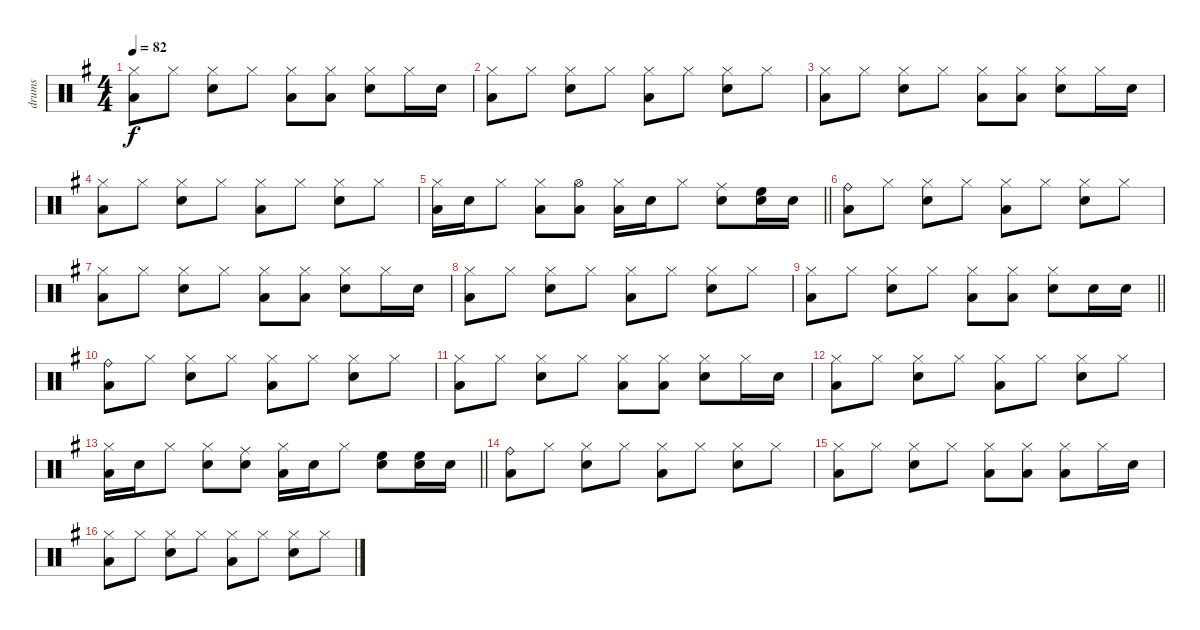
\track ("drums" "drums") {instrument percussion}
\staff {score}
\articulation defaults
\ts (4 4)
\tempo 82
\clef neutral
\ks g
("Hi-Hat (closed)" "Low Floor Tom (hit)").8{dy f} "Hi-Hat (closed)".8 ("Hi-Hat (closed)" "Electric Snare (hit)").8 "Hi-Hat (closed)".8 ("Hi-Hat (closed)" "Low Floor Tom (hit)").8 ("Hi-Hat (closed)" "Low Floor Tom (hit)").8 ("Hi-Hat (closed)" "Electric Snare (hit)").8 "Hi-Hat (closed)".16 "Electric Snare (hit)".16 |
("Hi-Hat (closed)" "Low Floor Tom (hit)").8 "Hi-Hat (closed)".8 ("Hi-Hat (closed)" "Electric Snare (hit)").8 "Hi-Hat (closed)".8 ("Hi-Hat (closed)" "Low Floor Tom (hit)").8 "Hi-Hat (closed)".8 ("Hi-Hat (closed)" "Electric Snare (hit)").8 "Hi-Hat (closed)".8 |
("Hi-Hat (closed)" "Low Floor Tom (hit)").8 "Hi-Hat (closed)".8 ("Hi-Hat (closed)" "Electric Snare (hit)").8 "Hi-Hat (closed)".8 ("Hi-Hat (closed)" "Low Floor Tom (hit)").8 ("Hi-Hat (closed)" "Low Floor Tom (hit)").8 ("Hi-Hat (closed)" "Electric Snare (hit)").8 "Hi-Hat (closed)".16 "Electric Snare (hit)".16 |
("Hi-Hat (closed)" "Low Floor Tom (hit)").8 "Hi-Hat (closed)".8 ("Hi-Hat (closed)" "Electric Snare (hit)").8 "Hi-Hat (closed)".8 ("Hi-Hat (closed)" "Low Floor Tom (hit)").8 "Hi-Hat (closed)".8 ("Hi-Hat (closed)" "Electric Snare (hit)").8 "Hi-Hat (closed)".8 |
\barLineRight lightlight
("Hi-Hat (closed)" "Low Floor Tom (hit)").16 "Electric Snare (hit)".16 "Hi-Hat (closed)".8 ("Hi-Hat (closed)" "Low Floor Tom (hit)").8 ("Hi-Hat (open)" "Low Floor Tom (hit)").8 ("Hi-Hat (closed)" "Low Floor Tom (hit)").16 "Electric Snare (hit)".16 "Hi-Hat (closed)".8 ("Ride (middle)" "Electric Snare (hit)").8 ("High Floor Tom (hit)" "Electric Snare (hit)").16 "Electric Snare (hit)".16 |
("Ride (bell)" "Low Floor Tom (hit)").8 "Hi-Hat (closed)".8 ("Hi-Hat (closed)" "Electric Snare (hit)").8 "Hi-Hat (closed)".8 ("Hi-Hat (closed)" "Low Floor Tom (hit)").8 "Hi-Hat (closed)".8 ("Hi-Hat (closed)" "Electric Snare (hit)").8 "Hi-Hat (closed)".8 |
("Hi-Hat (closed)" "Low Floor Tom (hit)").8 "Hi-Hat (closed)".8 ("Hi-Hat (closed)" "Electric Snare (hit)").8 "Hi-Hat (closed)".8 ("Hi-Hat (closed)" "Low Floor Tom (hit)").8 ("Hi-Hat (closed)" "Low Floor Tom (hit)").8 ("Hi-Hat (closed)" "Electric Snare (hit)").8 "Hi-Hat (closed)".16 "Electric Snare (hit)".16 |
("Hi-Hat (closed)" "Low Floor Tom (hit)").8 "Hi-Hat (closed)".8 ("Hi-Hat (closed)" "Electric Snare (hit)").8 "Hi-Hat (closed)".8 ("Hi-Hat (closed)" "Low Floor Tom (hit)").8 "Hi-Hat (closed)".8 ("Hi-Hat (closed)" "Electric Snare (hit)").8 "Hi-Hat (closed)".8 |
\barLineRight lightlight
("Hi-Hat (closed)" "Low Floor Tom (hit)").8 "Hi-Hat (closed)".8 ("Hi-Hat (closed)" "Electric Snare (hit)").8 "Hi-Hat (closed)".8 ("Hi-Hat (closed)" "Low Floor Tom (hit)").8 ("Hi-Hat (closed)" "Low Floor Tom (hit)").8 ("Hi-Hat (closed)" "Electric Snare (hit)").8 "Electric Snare (hit)".16 "Electric Snare (hit)".16 |
("Ride (bell)" "Low Floor Tom (hit)").8 "Hi-Hat (closed)".8 ("Hi-Hat (closed)" "Electric Snare (hit)").8 "Hi-Hat (closed)".8 ("Hi-Hat (closed)" "Low Floor Tom (hit)").8 "Hi-Hat (closed)".8 ("Hi-Hat (closed)" "Electric Snare (hit)").8 "Hi-Hat (closed)".8 |
("Hi-Hat (closed)" "Low Floor Tom (hit)").8 "Hi-Hat (closed)".8 ("Hi-Hat (closed)" "Electric Snare (hit)").8 "Hi-Hat (closed)".8 ("Hi-Hat (closed)" "Low Floor Tom (hit)").8 ("Hi-Hat (closed)" "Low Floor Tom (hit)").8 ("Hi-Hat (closed)" "Electric Snare (hit)").8 "Hi-Hat (closed)".16 "Electric Snare (hit)".16 |
("Hi-Hat (closed)" "Low Floor Tom (hit)").8 "Hi-Hat (closed)".8 ("Hi-Hat (closed)" "Electric Snare (hit)").8 "Hi-Hat (closed)".8 ("Hi-Hat (closed)" "Low Floor Tom (hit)").8 "Hi-Hat (closed)".8 ("Hi-Hat (closed)" "Electric Snare (hit)").8 "Hi-Hat (closed)".8 |
\barLineRight lightlight
("Hi-Hat (closed)" "Low Floor Tom (hit)").16 "Electric Snare (hit)".16 "Hi-Hat (closed)".8 ("Hi-Hat (closed)" "Electric Snare (hit)").8 ("Ride (middle)" "Electric Snare (hit)").8 ("Hi-Hat (closed)" "Low Floor Tom (hit)").16 "Electric Snare (hit)".16 "Hi-Hat (closed)".8 ("High Floor Tom (hit)" "Electric Snare (hit)").8 ("High Floor Tom (hit)" "Electric Snare (hit)").16 "Electric Snare (hit)".16 |
("Ride (bell)" "Low Floor Tom (hit)").8 "Hi-Hat (closed)".8 ("Hi-Hat (closed)" "Electric Snare (hit)").8 "Hi-Hat (closed)".8 ("Hi-Hat (closed)" "Low Floor Tom (hit)").8 "Hi-Hat (closed)".8 ("Hi-Hat (closed)" "Electric Snare (hit)").8 "Hi-Hat (closed)".8 |
("Hi-Hat (closed)" "Low Floor Tom (hit)").8 "Hi-Hat (closed)".8 ("Hi-Hat (closed)" "Electric Snare (hit)").8 "Hi-Hat (closed)".8 ("Hi-Hat (closed)" "Low Floor Tom (hit)").8 ("Hi-Hat (closed)" "Low Floor Tom (hit)").8 ("Hi-Hat (closed)" "Low Floor Tom (hit)").8 "Hi-Hat (closed)".16 "Electric Snare (hit)".16 |
("Hi-Hat (closed)" "Low Floor Tom (hit)").8 "Hi-Hat (closed)".8 ("Hi-Hat (closed)" "Electric Snare (hit)").8 "Hi-Hat (closed)".8 ("Hi-Hat (closed)" "Low Floor Tom (hit)").8 "Hi-Hat (closed)".8 ("Hi-Hat (closed)" "Electric Snare (hit)").8 "Hi-Hat (closed)".8
